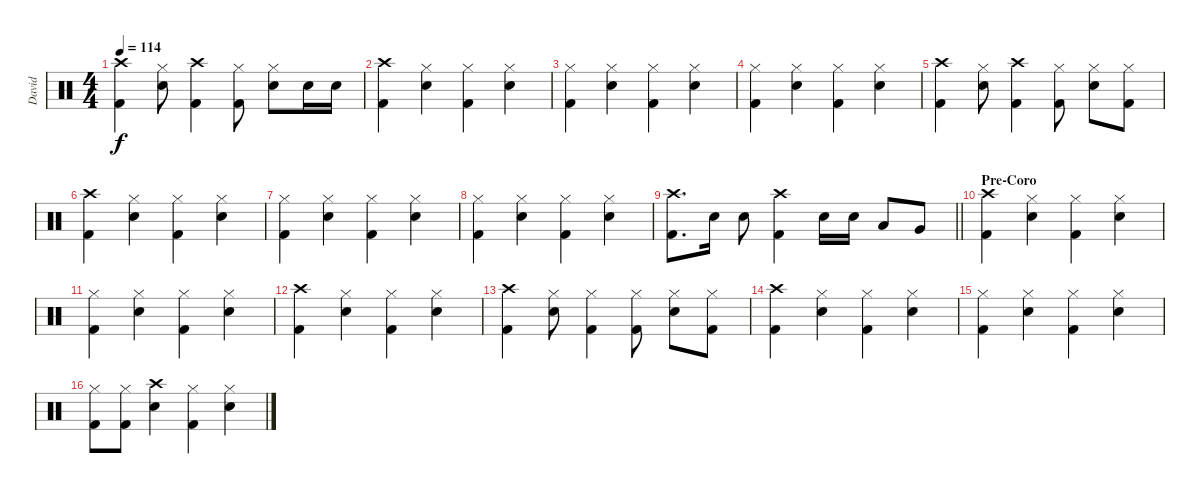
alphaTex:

\track ("David" "David") {instrument percussion}
\staff {score}
\articulation defaults
\ts (4 4)
\tempo 114
\clef neutral
\ks c
("Crash high (hit)" "Kick (hit) 2").4{dy f} ("Hi-Hat (closed)" "Snare (hit) 2").8 ("Crash high (hit)" "Kick (hit) 2").4 ("Hi-Hat (closed)" "Kick (hit) 2").8 ("Hi-Hat (closed)" "Snare (hit) 2").8 "Snare (hit) 2".16 "Snare (hit) 2".16 |
("Crash high (hit)" "Kick (hit) 2").4 ("Hi-Hat (closed)" "Snare (hit) 2").4 ("Hi-Hat (closed)" "Kick (hit) 2").4 ("Hi-Hat (closed)" "Snare (hit) 2").4 |
("Hi-Hat (closed)" "Kick (hit) 2").4 ("Hi-Hat (closed)" "Snare (hit) 2").4 ("Hi-Hat (closed)" "Kick (hit) 2").4 ("Hi-Hat (closed)" "Snare (hit) 2").4 |
("Hi-Hat (closed)" "Kick (hit) 2").4 ("Hi-Hat (closed)" "Snare (hit) 2").4 ("Hi-Hat (closed)" "Kick (hit) 2").4 ("Hi-Hat (closed)" "Snare (hit) 2").4 |
("Crash high (hit)" "Kick (hit) 2").4 ("Hi-Hat (closed)" "Snare (hit) 2").8 ("Crash high (hit)" "Kick (hit) 2").4 ("Hi-Hat (closed)" "Kick (hit) 2").8 ("Hi-Hat (closed)" "Snare (hit) 2").8 ("Hi-Hat (closed)" "Kick (hit) 2").8 |
("Crash high (hit)" "Kick (hit) 2").4 ("Hi-Hat (closed)" "Snare (hit) 2").4 ("Hi-Hat (closed)" "Kick (hit) 2").4 ("Hi-Hat (closed)" "Snare (hit) 2").4 |
("Hi-Hat (closed)" "Kick (hit) 2").4 ("Hi-Hat (closed)" "Snare (hit) 2").4 ("Hi-Hat (closed)" "Kick (hit) 2").4 ("Hi-Hat (closed)" "Snare (hit) 2").4 |
("Hi-Hat (closed)" "Kick (hit) 2").4 ("Hi-Hat (closed)" "Snare (hit) 2").4 ("Hi-Hat (closed)" "Kick (hit) 2").4 ("Hi-Hat (closed)" "Snare (hit) 2").4 |
\barLineRight lightlight
("Crash high (hit)" "Kick (hit) 2").8{d} "Snare (hit) 2".16 "Snare (hit) 2".8 ("Crash high (hit)" "Kick (hit) 2").4 "Snare (hit) 2".16 "Snare (hit) 2".16 "Low Tom (hit)".8 "Very Low Tom (hit)".8 |
\section ("" "Pre-Coro")
("Crash high (hit)" "Kick (hit) 2").4 ("Hi-Hat (closed)" "Snare (hit) 2").4 ("Hi-Hat (closed)" "Kick (hit) 2").4 ("Hi-Hat (closed)" "Snare (hit) 2").4 |
("Hi-Hat (closed)" "Kick (hit) 2").4 ("Hi-Hat (closed)" "Snare (hit) 2").4 ("Hi-Hat (closed)" "Kick (hit) 2").4 ("Hi-Hat (closed)" "Snare (hit) 2").4 |
("Crash high (hit)" "Kick (hit) 2").4 ("Hi-Hat (closed)" "Snare (hit) 2").4 ("Hi-Hat (closed)" "Kick (hit) 2").4 ("Hi-Hat (closed)" "Snare (hit) 2").4 |
("Crash high (hit)" "Kick (hit) 2").4 ("Hi-Hat (closed)" "Snare (hit) 2").8 ("Hi-Hat (closed)" "Kick (hit) 2").4 ("Hi-Hat (closed)" "Kick (hit) 2").8 ("Hi-Hat (closed)" "Snare (hit) 2").8 ("Hi-Hat (closed)" "Kick (hit) 2").8 |
("Crash high (hit)" "Kick (hit) 2").4 ("Hi-Hat (closed)" "Snare (hit) 2").4 ("Hi-Hat (closed)" "Kick (hit) 2").4 ("Hi-Hat (closed)" "Snare (hit) 2").4 |
("Hi-Hat (closed)" "Kick (hit) 2").4 ("Hi-Hat (closed)" "Snare (hit) 2").4 ("Hi-Hat (closed)" "Kick (hit) 2").4 ("Hi-Hat (closed)" "Snare (hit) 2").4 |
("Hi-Hat (closed)" "Kick (hit) 2").8 ("Hi-Hat (closed)" "Kick (hit) 2").8 ("Crash high (hit)" "Snare (hit) 2").4 ("Hi-Hat (closed)" "Kick (hit) 2").4 ("Hi-Hat (closed)" "Snare (hit) 2").4
